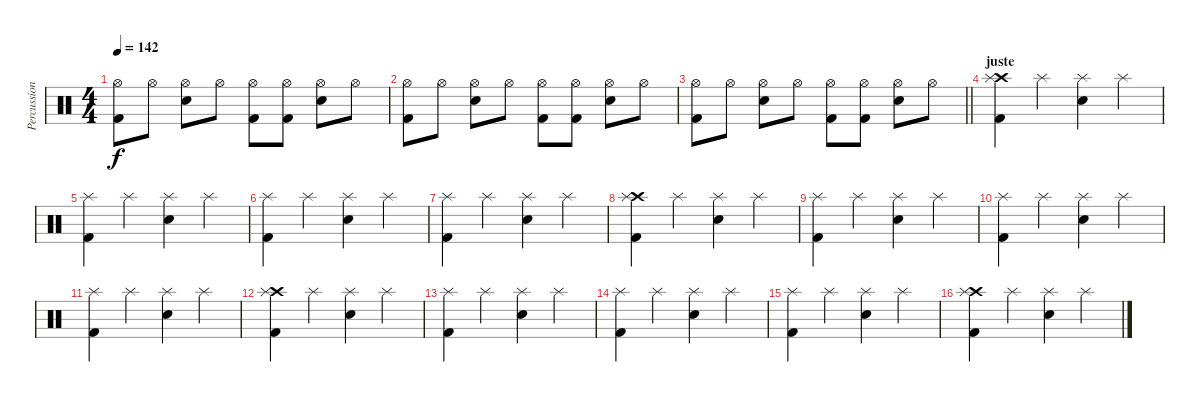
\track ("Percussions" "Percussion") {instrument percussion}
\staff {score}
\articulation defaults
\ts (4 4)
\tempo 142
\clef neutral
\ks c
("Hi-Hat (open)" "Kick (hit) 2").8{dy f} "Hi-Hat (open)".8 ("Hi-Hat (open)" "Snare (hit) 2").8 "Hi-Hat (open)".8 ("Hi-Hat (open)" "Kick (hit) 2").8 ("Hi-Hat (open)" "Kick (hit) 2").8 ("Hi-Hat (open)" "Snare (hit) 2").8 "Hi-Hat (open)".8 |
("Hi-Hat (open)" "Kick (hit) 2").8 "Hi-Hat (open)".8 ("Hi-Hat (open)" "Snare (hit) 2").8 "Hi-Hat (open)".8 ("Hi-Hat (open)" "Kick (hit) 2").8 ("Hi-Hat (open)" "Kick (hit) 2").8 ("Hi-Hat (open)" "Snare (hit) 2").8 "Hi-Hat (open)".8 |
\barLineRight lightlight
("Hi-Hat (open)" "Kick (hit) 2").8 "Hi-Hat (open)".8 ("Hi-Hat (open)" "Snare (hit) 2").8 "Hi-Hat (open)".8 ("Hi-Hat (open)" "Kick (hit) 2").8 ("Hi-Hat (open)" "Kick (hit) 2").8 ("Hi-Hat (open)" "Snare (hit) 2").8 "Hi-Hat (open)".8 |
\section ("" "juste")
("Crash high (hit)" "Splash (hit)" "Kick (hit) 2").4 "Splash (hit)".4 ("Splash (hit)" "Snare (hit) 2").4 "Splash (hit)".4 |
("Splash (hit)" "Kick (hit) 2").4 "Splash (hit)".4 ("Splash (hit)" "Snare (hit) 2").4 "Splash (hit)".4 |
("Splash (hit)" "Kick (hit) 2").4 "Splash (hit)".4 ("Splash (hit)" "Snare (hit) 2").4 "Splash (hit)".4 |
("Splash (hit)" "Kick (hit) 2").4 "Splash (hit)".4 ("Splash (hit)" "Snare (hit) 2").4 "Splash (hit)".4 |
("Crash high (hit)" "Splash (hit)" "Kick (hit) 2").4 "Splash (hit)".4 ("Splash (hit)" "Snare (hit) 2").4 "Splash (hit)".4 |
("Splash (hit)" "Kick (hit) 2").4 "Splash (hit)".4 ("Splash (hit)" "Snare (hit) 2").4 "Splash (hit)".4 |
("Splash (hit)" "Kick (hit) 2").4 "Splash (hit)".4 ("Splash (hit)" "Snare (hit) 2").4 "Splash (hit)".4 |
("Splash (hit)" "Kick (hit) 2").4 "Splash (hit)".4 ("Splash (hit)" "Snare (hit) 2").4 "Splash (hit)".4 |
("Crash high (hit)" "Splash (hit)" "Kick (hit) 2").4 "Splash (hit)".4 ("Splash (hit)" "Snare (hit) 2").4 "Splash (hit)".4 |
("Splash (hit)" "Kick (hit) 2").4 "Splash (hit)".4 ("Splash (hit)" "Snare (hit) 2").4 "Splash (hit)".4 |
("Splash (hit)" "Kick (hit) 2").4 "Splash (hit)".4 ("Splash (hit)" "Snare (hit) 2").4 "Splash (hit)".4 |
("Splash (hit)" "Kick (hit) 2").4 "Splash (hit)".4 ("Splash (hit)" "Snare (hit) 2").4 "Splash (hit)".4 |
("Crash high (hit)" "Splash (hit)" "Kick (hit) 2").4 "Splash (hit)".4 ("Splash (hit)" "Snare (hit) 2").4 "Splash (hit)".4
